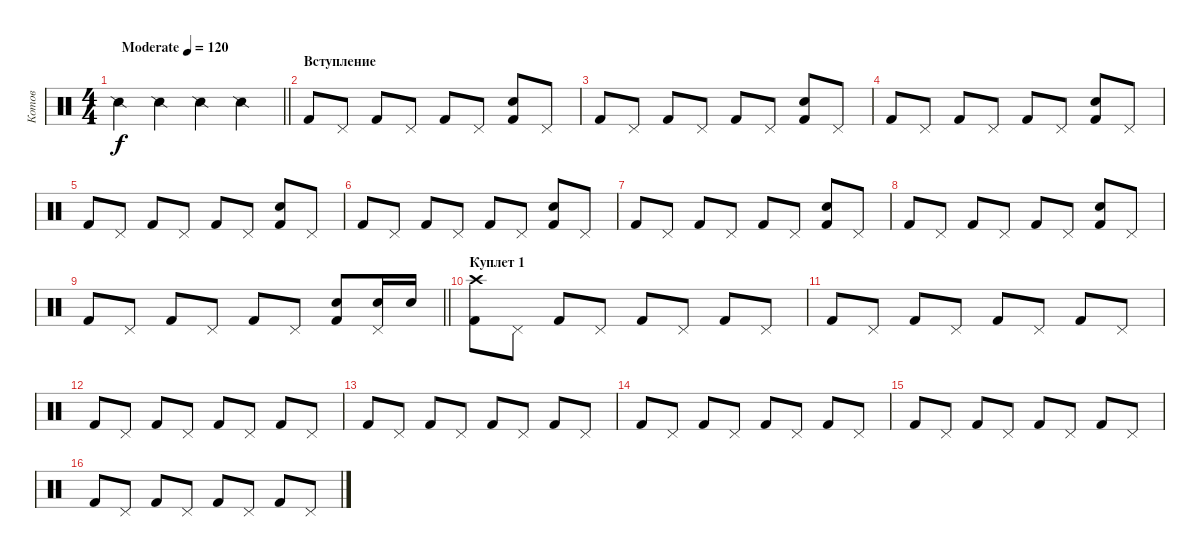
\track ("Котов" "Котов") {instrument percussion}
\staff {score}
\articulation defaults
\ts (4 4)
\tempo (120 "Moderate")
\clef neutral
\barLineRight lightlight
\ks c "Snare (side stick) 2".4{dy f} "Snare (side stick) 2".4 "Snare (side stick) 2".4 "Snare (side stick) 2".4
|
\section ("" "Вступление")
"Kick (hit) 2".8 "Pedal Hi-Hat (hit)".8 "Kick (hit) 2".8 "Pedal Hi-Hat (hit)".8 "Kick (hit) 2".8 "Pedal Hi-Hat (hit)".8 ("Kick (hit) 2" "Snare (hit) 2").8 "Pedal Hi-Hat (hit)".8 |
"Kick (hit) 2".8 "Pedal Hi-Hat (hit)".8 "Kick (hit) 2".8 "Pedal Hi-Hat (hit)".8 "Kick (hit) 2".8 "Pedal Hi-Hat (hit)".8 ("Kick (hit) 2" "Snare (hit) 2").8 "Pedal Hi-Hat (hit)".8 |
"Kick (hit) 2".8 "Pedal Hi-Hat (hit)".8 "Kick (hit) 2".8 "Pedal Hi-Hat (hit)".8 "Kick (hit) 2".8 "Pedal Hi-Hat (hit)".8 ("Kick (hit) 2" "Snare (hit) 2").8 "Pedal Hi-Hat (hit)".8 |
"Kick (hit) 2".8 "Pedal Hi-Hat (hit)".8 "Kick (hit) 2".8 "Pedal Hi-Hat (hit)".8 "Kick (hit) 2".8 "Pedal Hi-Hat (hit)".8 ("Kick (hit) 2" "Snare (hit) 2").8 "Pedal Hi-Hat (hit)".8 |
"Kick (hit) 2".8 "Pedal Hi-Hat (hit)".8 "Kick (hit) 2".8 "Pedal Hi-Hat (hit)".8 "Kick (hit) 2".8 "Pedal Hi-Hat (hit)".8 ("Kick (hit) 2" "Snare (hit) 2").8 "Pedal Hi-Hat (hit)".8 |
"Kick (hit) 2".8 "Pedal Hi-Hat (hit)".8 "Kick (hit) 2".8 "Pedal Hi-Hat (hit)".8 "Kick (hit) 2".8 "Pedal Hi-Hat (hit)".8 ("Kick (hit) 2" "Snare (hit) 2").8 "Pedal Hi-Hat (hit)".8 |
"Kick (hit) 2".8 "Pedal Hi-Hat (hit)".8 "Kick (hit) 2".8 "Pedal Hi-Hat (hit)".8 "Kick (hit) 2".8 "Pedal Hi-Hat (hit)".8 ("Kick (hit) 2" "Snare (hit) 2").8 "Pedal Hi-Hat (hit)".8 |
\barLineRight lightlight "Kick (hit) 2".8 "Pedal Hi-Hat (hit)".8 "Kick (hit) 2".8 "Pedal Hi-Hat (hit)".8 "Kick (hit) 2".8 "Pedal Hi-Hat (hit)".8
("Kick (hit) 2" "Snare (hit) 2").8 ("Pedal Hi-Hat (hit)" "Snare (hit) 2").16 "Snare (hit) 2".16 |
\section ("" "Куплет 1")
("Kick (hit) 2" "Crash high (hit)").8 "Pedal Hi-Hat (hit)".8 "Kick (hit) 2".8 "Pedal Hi-Hat (hit)".8 "Kick (hit) 2".8 "Pedal Hi-Hat (hit)".8 "Kick (hit) 2".8 "Pedal Hi-Hat (hit)".8 |
"Kick (hit) 2".8 "Pedal Hi-Hat (hit)".8 "Kick (hit) 2".8 "Pedal Hi-Hat (hit)".8 "Kick (hit) 2".8 "Pedal Hi-Hat (hit)".8 "Kick (hit) 2".8 "Pedal Hi-Hat (hit)".8 |
"Kick (hit) 2".8 "Pedal Hi-Hat (hit)".8 "Kick (hit) 2".8 "Pedal Hi-Hat (hit)".8 "Kick (hit) 2".8 "Pedal Hi-Hat (hit)".8 "Kick (hit) 2".8 "Pedal Hi-Hat (hit)".8 |
"Kick (hit) 2".8 "Pedal Hi-Hat (hit)".8 "Kick (hit) 2".8 "Pedal Hi-Hat (hit)".8 "Kick (hit) 2".8 "Pedal Hi-Hat (hit)".8 "Kick (hit) 2".8 "Pedal Hi-Hat (hit)".8 |
"Kick (hit) 2".8 "Pedal Hi-Hat (hit)".8 "Kick (hit) 2".8 "Pedal Hi-Hat (hit)".8 "Kick (hit) 2".8 "Pedal Hi-Hat (hit)".8 "Kick (hit) 2".8 "Pedal Hi-Hat (hit)".8 |
"Kick (hit) 2".8 "Pedal Hi-Hat (hit)".8 "Kick (hit) 2".8 "Pedal Hi-Hat (hit)".8 "Kick (hit) 2".8 "Pedal Hi-Hat (hit)".8 "Kick (hit) 2".8 "Pedal Hi-Hat (hit)".8 |
"Kick (hit) 2".8 "Pedal Hi-Hat (hit)".8 "Kick (hit) 2".8 "Pedal Hi-Hat (hit)".8 "Kick (hit) 2".8 "Pedal Hi-Hat (hit)".8 "Kick (hit) 2".8 "Pedal Hi-Hat (hit)".8
